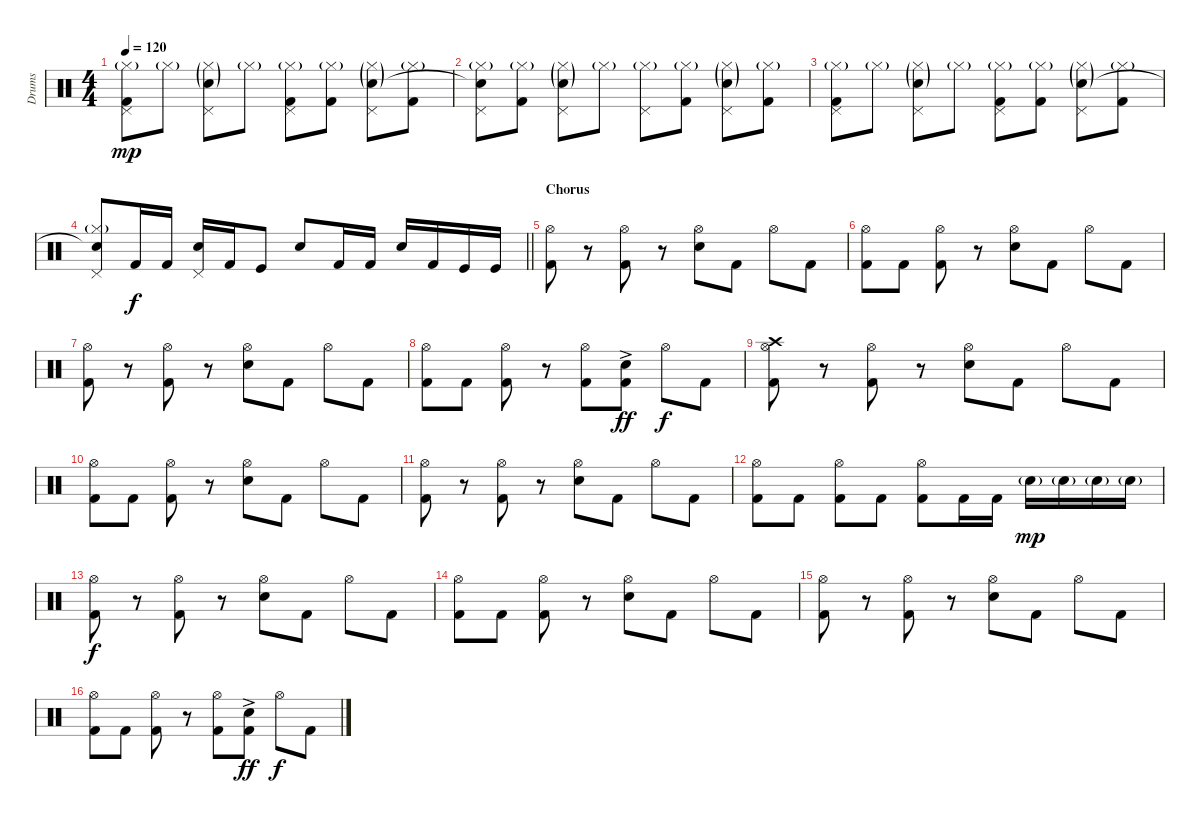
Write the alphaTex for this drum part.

\track ("Drums" "Drums") {instrument percussion}
\staff {score}
\articulation defaults
\ts (4 4)
\tempo 120
\clef neutral
\ks c
("Pedal Hi-Hat (hit)" "Hi-Hat (closed)"{g} "Kick (hit) 2").8{dy mp} "Hi-Hat (closed)"{g}.8 ("Pedal Hi-Hat (hit)" "Hi-Hat (closed)"{g} "Snare (hit) 2"{g}).8 "Hi-Hat (closed)"{g}.8 ("Pedal Hi-Hat (hit)" "Hi-Hat (closed)"{g} "Kick (hit) 2").8 ("Hi-Hat (closed)"{g} "Kick (hit) 2").8 ("Pedal Hi-Hat (hit)" "Hi-Hat (closed)"{g} "Snare (hit) 2"{g}).8 ("Hi-Hat (closed)"{g} "Kick (hit) 2").8 |
("Pedal Hi-Hat (hit)" "Hi-Hat (closed)"{g} "Snare (hit)"{t}).8 ("Hi-Hat (closed)"{g} "Kick (hit) 2").8 ("Pedal Hi-Hat (hit)" "Hi-Hat (closed)"{g} "Snare (hit) 2"{g}).8 "Hi-Hat (closed)"{g}.8 ("Pedal Hi-Hat (hit)" "Hi-Hat (closed)"{g}).8 ("Hi-Hat (closed)"{g} "Kick (hit) 2").8 ("Pedal Hi-Hat (hit)" "Hi-Hat (closed)"{g} "Snare (hit) 2"{g}).8 ("Hi-Hat (closed)"{g} "Kick (hit) 2").8 |
("Pedal Hi-Hat (hit)" "Hi-Hat (closed)"{g} "Kick (hit) 2").8 "Hi-Hat (closed)"{g}.8 ("Pedal Hi-Hat (hit)" "Hi-Hat (closed)"{g} "Snare (hit) 2"{g}).8 "Hi-Hat (closed)"{g}.8 ("Pedal Hi-Hat (hit)" "Hi-Hat (closed)"{g} "Kick (hit) 2").8 ("Hi-Hat (closed)"{g} "Kick (hit) 2").8 ("Pedal Hi-Hat (hit)" "Hi-Hat (closed)"{g} "Snare (hit) 2"{g}).8 ("Hi-Hat (closed)"{g} "Kick (hit) 2").8 |
\barLineRight lightlight
("Pedal Hi-Hat (hit)" "Hi-Hat (closed)"{g} "Snare (hit)"{t}).8 "Kick (hit) 2".16{dy f} "Kick (hit) 2".16 ("Pedal Hi-Hat (hit)" "Electric Snare (hit)").16 "Kick (hit) 2".16 "Kick (hit)".8 "Electric Snare (hit)".8 "Kick (hit) 2".16 "Kick (hit) 2".16 "Electric Snare (hit)".16 "Kick (hit) 2".16 "Kick (hit)".16 "Kick (hit)".16 |
\section ("" "Chorus")
("Hi-Hat (open)" "Kick (hit) 2").8 r.8 ("Hi-Hat (open)" "Kick (hit) 2").8 r.8 ("Hi-Hat (open)" "Snare (hit) 2").8 "Kick (hit) 2".8 "Hi-Hat (open)".8 "Kick (hit) 2".8 |
("Hi-Hat (open)" "Kick (hit) 2").8 "Kick (hit) 2".8 ("Hi-Hat (open)" "Kick (hit) 2").8 r.8 ("Hi-Hat (open)" "Snare (hit) 2").8 "Kick (hit) 2".8 "Hi-Hat (open)".8 "Kick (hit) 2".8 |
("Hi-Hat (open)" "Kick (hit) 2").8 r.8 ("Hi-Hat (open)" "Kick (hit) 2").8 r.8 ("Hi-Hat (open)" "Snare (hit) 2").8 "Kick (hit) 2".8 "Hi-Hat (open)".8 "Kick (hit) 2".8 |
("Hi-Hat (open)" "Kick (hit) 2").8 "Kick (hit) 2".8 ("Hi-Hat (open)" "Kick (hit) 2").8 r.8 ("Hi-Hat (open)" "Kick (hit) 2").8 ("Snare (hit) 2"{ac} "Kick (hit) 2").8{dy ff} "Hi-Hat (open)".8{dy f} "Kick (hit) 2".8 |
("Crash high (hit)" "Hi-Hat (open)" "Kick (hit) 2").8 r.8 ("Hi-Hat (open)" "Kick (hit) 2").8 r.8 ("Hi-Hat (open)" "Snare (hit) 2").8 "Kick (hit) 2".8 "Hi-Hat (open)".8 "Kick (hit) 2".8 |
("Hi-Hat (open)" "Kick (hit) 2").8 "Kick (hit) 2".8 ("Hi-Hat (open)" "Kick (hit) 2").8 r.8 ("Hi-Hat (open)" "Snare (hit) 2").8 "Kick (hit) 2".8 "Hi-Hat (open)".8 "Kick (hit) 2".8 |
("Hi-Hat (open)" "Kick (hit) 2").8 r.8 ("Hi-Hat (open)" "Kick (hit) 2").8 r.8 ("Hi-Hat (open)" "Snare (hit) 2").8 "Kick (hit) 2".8 "Hi-Hat (open)".8 "Kick (hit) 2".8 |
("Hi-Hat (open)" "Kick (hit) 2").8 "Kick (hit) 2".8 ("Hi-Hat (open)" "Kick (hit) 2").8 "Kick (hit) 2".8 ("Hi-Hat (open)" "Kick (hit) 2").8 "Kick (hit) 2".16 "Kick (hit) 2".16 "Snare (hit) 2"{g}.16{dy mp} "Snare (hit) 2"{g}.16 "Electric Snare (hit)"{g}.16 "Electric Snare (hit)"{g}.16 |
("Hi-Hat (open)" "Kick (hit) 2").8{dy f} r.8 ("Hi-Hat (open)" "Kick (hit) 2").8 r.8 ("Hi-Hat (open)" "Snare (hit) 2").8 "Kick (hit) 2".8 "Hi-Hat (open)".8 "Kick (hit) 2".8 |
("Hi-Hat (open)" "Kick (hit) 2").8 "Kick (hit) 2".8 ("Hi-Hat (open)" "Kick (hit) 2").8 r.8 ("Hi-Hat (open)" "Snare (hit) 2").8 "Kick (hit) 2".8 "Hi-Hat (open)".8 "Kick (hit) 2".8 |
("Hi-Hat (open)" "Kick (hit) 2").8 r.8 ("Hi-Hat (open)" "Kick (hit) 2").8 r.8 ("Hi-Hat (open)" "Snare (hit) 2").8 "Kick (hit) 2".8 "Hi-Hat (open)".8 "Kick (hit) 2".8 |
("Hi-Hat (open)" "Kick (hit) 2").8 "Kick (hit) 2".8 ("Hi-Hat (open)" "Kick (hit) 2").8 r.8 ("Hi-Hat (open)" "Kick (hit) 2").8 ("Snare (hit) 2"{ac} "Kick (hit) 2").8{dy ff} "Hi-Hat (open)".8{dy f} "Kick (hit) 2".8
